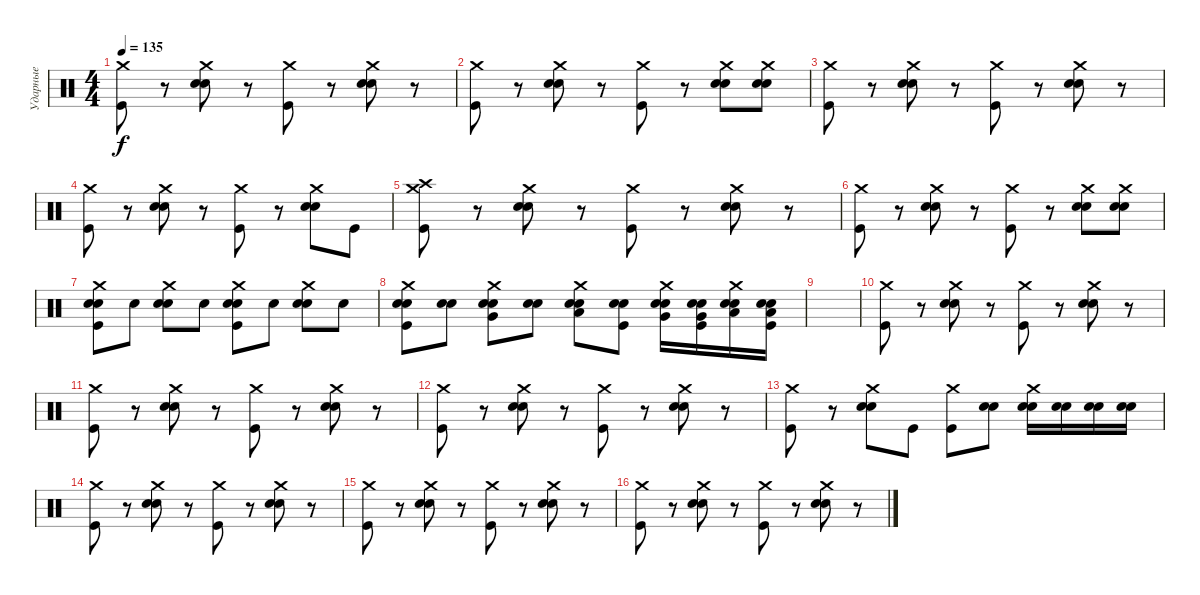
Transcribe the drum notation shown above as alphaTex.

\track ("Ударные" "Ударные") {instrument percussion}
\staff {score}
\articulation defaults
\ts (4 4)
\tempo 135
\clef neutral
\ks c
("Crash medium (hit)" "Kick (hit)").8{dy f} r.8 ("Crash medium (hit)" "Electric Snare (hit)" "Electric Snare (hit)").8 r.8 ("Crash medium (hit)" "Kick (hit)").8 r.8 ("Crash medium (hit)" "Electric Snare (hit)" "Electric Snare (hit)").8 r.8 |
("Crash medium (hit)" "Kick (hit)").8 r.8 ("Crash medium (hit)" "Electric Snare (hit)" "Electric Snare (hit)").8 r.8 ("Crash medium (hit)" "Kick (hit)").8 r.8 ("Crash medium (hit)" "Electric Snare (hit)" "Electric Snare (hit)").8 ("Crash medium (hit)" "Electric Snare (hit)" "Electric Snare (hit)").8 |
("Crash medium (hit)" "Kick (hit)").8 r.8 ("Crash medium (hit)" "Electric Snare (hit)" "Electric Snare (hit)").8 r.8 ("Crash medium (hit)" "Kick (hit)").8 r.8 ("Crash medium (hit)" "Electric Snare (hit)" "Electric Snare (hit)").8 r.8 |
("Crash medium (hit)" "Kick (hit)").8 r.8 ("Crash medium (hit)" "Electric Snare (hit)" "Electric Snare (hit)").8 r.8 ("Crash medium (hit)" "Kick (hit)").8 r.8 ("Crash medium (hit)" "Electric Snare (hit)" "Electric Snare (hit)").8 "Kick (hit)".8 |
("Crash medium (hit)" "Crash high (hit)" "Kick (hit)").8 r.8 ("Crash medium (hit)" "Electric Snare (hit)" "Electric Snare (hit)").8 r.8 ("Crash medium (hit)" "Kick (hit)").8 r.8 ("Crash medium (hit)" "Electric Snare (hit)" "Electric Snare (hit)").8 r.8 |
("Crash medium (hit)" "Kick (hit)").8 r.8 ("Crash medium (hit)" "Electric Snare (hit)" "Electric Snare (hit)").8 r.8 ("Crash medium (hit)" "Kick (hit)").8 r.8 ("Crash medium (hit)" "Electric Snare (hit)" "Electric Snare (hit)").8 ("Crash medium (hit)" "Electric Snare (hit)" "Electric Snare (hit)").8 |
("Crash medium (hit)" "Electric Snare (hit)" "Electric Snare (hit)" "Kick (hit)").8 "Electric Snare (hit)".8 ("Crash medium (hit)" "Electric Snare (hit)" "Electric Snare (hit)").8 "Electric Snare (hit)".8 ("Crash medium (hit)" "Electric Snare (hit)" "Electric Snare (hit)" "Kick (hit)").8 "Electric Snare (hit)".8 ("Crash medium (hit)" "Electric Snare (hit)" "Electric Snare (hit)").8 "Electric Snare (hit)".8 |
("Crash medium (hit)" "Electric Snare (hit)" "Electric Snare (hit)" "Kick (hit)").8 ("Electric Snare (hit)" "Electric Snare (hit)").8 ("Crash medium (hit)" "Electric Snare (hit)" "Electric Snare (hit)" "Very Low Tom (hit)").8 ("Electric Snare (hit)" "Electric Snare (hit)").8 ("Crash medium (hit)" "Electric Snare (hit)" "Electric Snare (hit)" "Low Floor Tom (hit)").8 ("Electric Snare (hit)" "Electric Snare (hit)" "Kick (hit)").8 ("Crash medium (hit)" "Electric Snare (hit)" "Electric Snare (hit)" "Very Low Tom (hit)").16 ("Electric Snare (hit)" "Electric Snare (hit)" "Very Low Tom (hit)" "Kick (hit)").16 ("Crash medium (hit)" "Electric Snare (hit)" "Electric Snare (hit)" "Low Floor Tom (hit)").16 ("Electric Snare (hit)" "Electric Snare (hit)" "Low Floor Tom (hit)" "Kick (hit)").16 |
|
("Crash medium (hit)" "Kick (hit)").8 r.8 ("Crash medium (hit)" "Electric Snare (hit)" "Electric Snare (hit)").8 r.8 ("Crash medium (hit)" "Kick (hit)").8 r.8 ("Crash medium (hit)" "Electric Snare (hit)" "Electric Snare (hit)").8 r.8 |
("Crash medium (hit)" "Kick (hit)").8 r.8 ("Crash medium (hit)" "Electric Snare (hit)" "Electric Snare (hit)").8 r.8 ("Crash medium (hit)" "Kick (hit)").8 r.8 ("Crash medium (hit)" "Electric Snare (hit)" "Electric Snare (hit)").8 r.8 |
("Crash medium (hit)" "Kick (hit)").8 r.8 ("Crash medium (hit)" "Electric Snare (hit)" "Electric Snare (hit)").8 r.8 ("Crash medium (hit)" "Kick (hit)").8 r.8 ("Crash medium (hit)" "Electric Snare (hit)" "Electric Snare (hit)").8 r.8 |
("Crash medium (hit)" "Kick (hit)").8 r.8 ("Crash medium (hit)" "Electric Snare (hit)" "Electric Snare (hit)").8 "Kick (hit)".8 ("Crash medium (hit)" "Kick (hit)").8 ("Electric Snare (hit)" "Electric Snare (hit)").8 ("Crash medium (hit)" "Electric Snare (hit)" "Electric Snare (hit)").16 ("Electric Snare (hit)" "Electric Snare (hit)").16 ("Electric Snare (hit)" "Electric Snare (hit)").16 ("Electric Snare (hit)" "Electric Snare (hit)").16 |
("Crash medium (hit)" "Kick (hit)").8 r.8 ("Crash medium (hit)" "Electric Snare (hit)" "Electric Snare (hit)").8 r.8 ("Crash medium (hit)" "Kick (hit)").8 r.8 ("Crash medium (hit)" "Electric Snare (hit)" "Electric Snare (hit)").8 r.8 |
("Crash medium (hit)" "Kick (hit)").8 r.8 ("Crash medium (hit)" "Electric Snare (hit)" "Electric Snare (hit)").8 r.8 ("Crash medium (hit)" "Kick (hit)").8 r.8 ("Crash medium (hit)" "Electric Snare (hit)" "Electric Snare (hit)").8 r.8 |
("Crash medium (hit)" "Kick (hit)").8 r.8 ("Crash medium (hit)" "Electric Snare (hit)" "Electric Snare (hit)").8 r.8 ("Crash medium (hit)" "Kick (hit)").8 r.8 ("Crash medium (hit)" "Electric Snare (hit)" "Electric Snare (hit)").8 r.8
